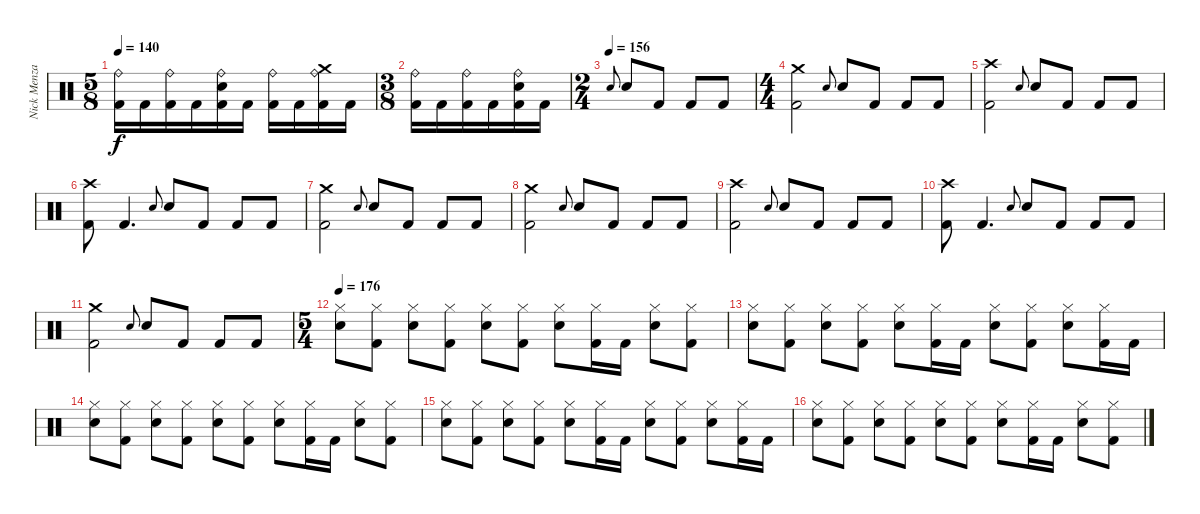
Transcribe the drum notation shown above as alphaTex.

\track ("Nick Menza" "Nick Menza") {instrument percussion}
\staff {score}
\articulation defaults
\ts (5 8)
\tempo 140
\clef neutral
\ks c
("Ride (bell)" "Kick (hit) 2").16{dy f} "Kick (hit) 2".16 ("Ride (bell)" "Kick (hit) 2").16 "Kick (hit) 2".16 ("Ride (bell)" "Electric Snare (hit)" "Kick (hit) 2").16 "Kick (hit) 2".16 ("Ride (bell)" "Kick (hit) 2").16 "Kick (hit) 2".16 ("Ride (bell)" "Crash medium (hit)" "Kick (hit) 2").16 "Kick (hit) 2".16 |
\ts (3 8)
("Ride (bell)" "Kick (hit) 2").16 "Kick (hit) 2".16 ("Ride (bell)" "Kick (hit) 2").16 "Kick (hit) 2".16 ("Ride (bell)" "Electric Snare (hit)" "Kick (hit) 2").16 "Kick (hit) 2".16 |
\ts (2 4)
\tempo (156)
"Electric Snare (hit)".8{gr onbeat} "Electric Snare (hit)".8 "Kick (hit) 2".8 "Kick (hit) 2".8 "Kick (hit) 2".8 |
\ts (4 4)
("Crash medium (hit)" "Kick (hit) 2").2 "Electric Snare (hit)".8{gr onbeat} "Electric Snare (hit)".8 "Kick (hit) 2".8 "Kick (hit) 2".8 "Kick (hit) 2".8 |
("Crash high (hit)" "Kick (hit) 2").2 "Electric Snare (hit)".8{gr onbeat} "Electric Snare (hit)".8 "Kick (hit) 2".8 "Kick (hit) 2".8 "Kick (hit) 2".8 |
("Crash high (hit)" "Kick (hit) 2").8 "Kick (hit) 2".4{d} "Electric Snare (hit)".8{gr onbeat} "Electric Snare (hit)".8 "Kick (hit) 2".8 "Kick (hit) 2".8 "Kick (hit) 2".8 |
("Crash medium (hit)" "Kick (hit) 2").2 "Electric Snare (hit)".8{gr onbeat} "Electric Snare (hit)".8 "Kick (hit) 2".8 "Kick (hit) 2".8 "Kick (hit) 2".8 |
("Crash medium (hit)" "Kick (hit) 2").2 "Electric Snare (hit)".8{gr onbeat} "Electric Snare (hit)".8 "Kick (hit) 2".8 "Kick (hit) 2".8 "Kick (hit) 2".8 |
("Crash high (hit)" "Kick (hit) 2").2 "Electric Snare (hit)".8{gr onbeat} "Electric Snare (hit)".8 "Kick (hit) 2".8 "Kick (hit) 2".8 "Kick (hit) 2".8 |
("Crash high (hit)" "Kick (hit) 2").8 "Kick (hit) 2".4{d} "Electric Snare (hit)".8{gr onbeat} "Electric Snare (hit)".8 "Kick (hit) 2".8 "Kick (hit) 2".8 "Kick (hit) 2".8 |
("Crash medium (hit)" "Kick (hit) 2").2 "Electric Snare (hit)".8{gr onbeat} "Electric Snare (hit)".8 "Kick (hit) 2".8 "Kick (hit) 2".8 "Kick (hit) 2".8 |
\ts (5 4)
\tempo 176
("Hi-Hat (closed)" "Electric Snare (hit)").8 ("Hi-Hat (closed)" "Kick (hit) 2").8 ("Hi-Hat (closed)" "Electric Snare (hit)").8 ("Hi-Hat (closed)" "Kick (hit) 2").8 ("Hi-Hat (closed)" "Electric Snare (hit)").8 ("Hi-Hat (closed)" "Kick (hit) 2").8 ("Hi-Hat (closed)" "Electric Snare (hit)").8 ("Hi-Hat (closed)" "Kick (hit) 2").16 "Kick (hit) 2".16 ("Hi-Hat (closed)" "Electric Snare (hit)").8 ("Hi-Hat (closed)" "Kick (hit) 2").8 |
("Hi-Hat (closed)" "Electric Snare (hit)").8 ("Hi-Hat (closed)" "Kick (hit) 2").8 ("Hi-Hat (closed)" "Electric Snare (hit)").8 ("Hi-Hat (closed)" "Kick (hit) 2").8 ("Hi-Hat (closed)" "Electric Snare (hit)").8 ("Hi-Hat (closed)" "Kick (hit) 2").16 "Kick (hit) 2".16 ("Hi-Hat (closed)" "Electric Snare (hit)").8 ("Hi-Hat (closed)" "Kick (hit) 2").8 ("Hi-Hat (closed)" "Electric Snare (hit)").8 ("Hi-Hat (closed)" "Kick (hit) 2").16 "Kick (hit) 2".16 |
("Hi-Hat (closed)" "Electric Snare (hit)").8 ("Hi-Hat (closed)" "Kick (hit) 2").8 ("Hi-Hat (closed)" "Electric Snare (hit)").8 ("Hi-Hat (closed)" "Kick (hit) 2").8 ("Hi-Hat (closed)" "Electric Snare (hit)").8 ("Hi-Hat (closed)" "Kick (hit) 2").8 ("Hi-Hat (closed)" "Electric Snare (hit)").8 ("Hi-Hat (closed)" "Kick (hit) 2").16 "Kick (hit) 2".16 ("Hi-Hat (closed)" "Electric Snare (hit)").8 ("Hi-Hat (closed)" "Kick (hit) 2").8 |
("Hi-Hat (closed)" "Electric Snare (hit)").8 ("Hi-Hat (closed)" "Kick (hit) 2").8 ("Hi-Hat (closed)" "Electric Snare (hit)").8 ("Hi-Hat (closed)" "Kick (hit) 2").8 ("Hi-Hat (closed)" "Electric Snare (hit)").8 ("Hi-Hat (closed)" "Kick (hit) 2").16 "Kick (hit) 2".16 ("Hi-Hat (closed)" "Electric Snare (hit)").8 ("Hi-Hat (closed)" "Kick (hit) 2").8 ("Hi-Hat (closed)" "Electric Snare (hit)").8 ("Hi-Hat (closed)" "Kick (hit) 2").16 "Kick (hit) 2".16 |
("Hi-Hat (closed)" "Electric Snare (hit)").8 ("Hi-Hat (closed)" "Kick (hit) 2").8 ("Hi-Hat (closed)" "Electric Snare (hit)").8 ("Hi-Hat (closed)" "Kick (hit) 2").8 ("Hi-Hat (closed)" "Electric Snare (hit)").8 ("Hi-Hat (closed)" "Kick (hit) 2").8 ("Hi-Hat (closed)" "Electric Snare (hit)").8 ("Hi-Hat (closed)" "Kick (hit) 2").16 "Kick (hit) 2".16 ("Hi-Hat (closed)" "Electric Snare (hit)").8 ("Hi-Hat (closed)" "Kick (hit) 2").8
